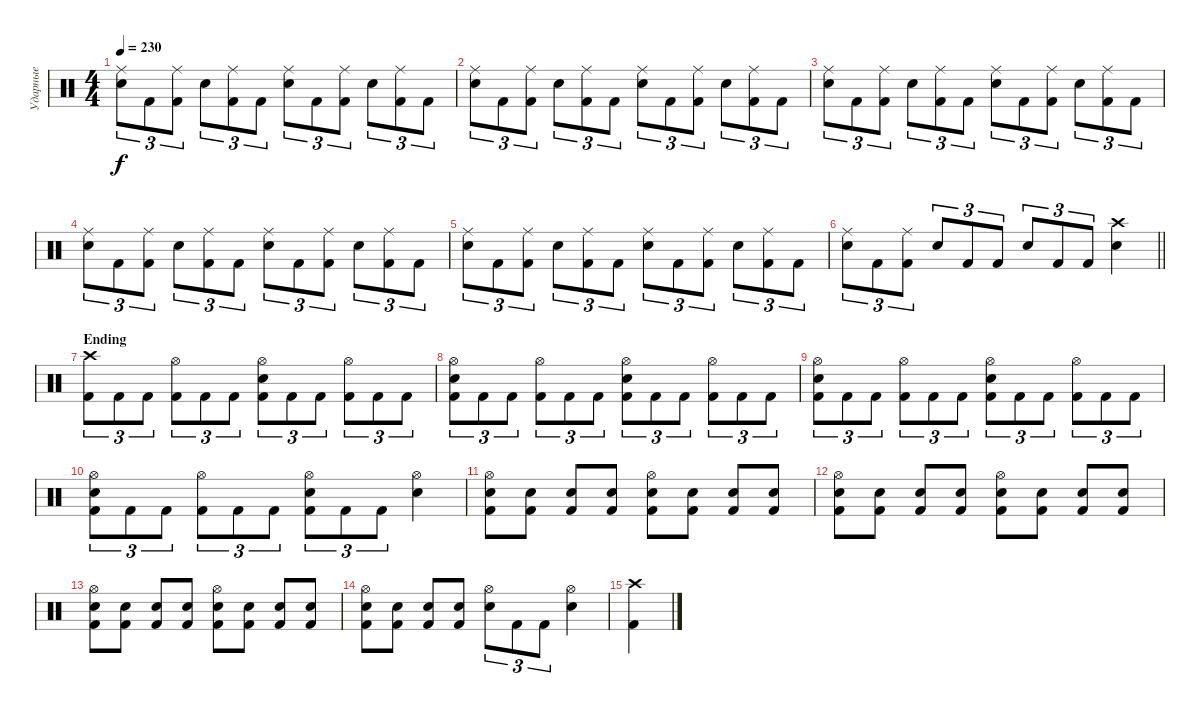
\track ("Ударные" "Ударные") {instrument percussion}
\staff {score}
\articulation defaults
\ts (4 4)
\tempo 230
\clef neutral
\ks c
("Ride (middle)" "Snare (hit) 2").8{tu (3 2) dy f} "Kick (hit) 2".8{tu (3 2)} ("Ride (middle)" "Kick (hit) 2").8{tu (3 2)} "Snare (hit) 2".8{tu (3 2)} ("Ride (middle)" "Kick (hit) 2").8{tu (3 2)} "Kick (hit) 2".8{tu (3 2)} ("Ride (middle)" "Snare (hit) 2").8{tu (3 2)} "Kick (hit) 2".8{tu (3 2)} ("Ride (middle)" "Kick (hit) 2").8{tu (3 2)} "Snare (hit) 2".8{tu (3 2)} ("Ride (middle)" "Kick (hit) 2").8{tu (3 2)} "Kick (hit) 2".8{tu (3 2)} |
("Ride (middle)" "Snare (hit) 2").8{tu (3 2)} "Kick (hit) 2".8{tu (3 2)} ("Ride (middle)" "Kick (hit) 2").8{tu (3 2)} "Snare (hit) 2".8{tu (3 2)} ("Ride (middle)" "Kick (hit) 2").8{tu (3 2)} "Kick (hit) 2".8{tu (3 2)} ("Ride (middle)" "Snare (hit) 2").8{tu (3 2)} "Kick (hit) 2".8{tu (3 2)} ("Ride (middle)" "Kick (hit) 2").8{tu (3 2)} "Snare (hit) 2".8{tu (3 2)} ("Ride (middle)" "Kick (hit) 2").8{tu (3 2)} "Kick (hit) 2".8{tu (3 2)} |
("Ride (middle)" "Snare (hit) 2").8{tu (3 2)} "Kick (hit) 2".8{tu (3 2)} ("Ride (middle)" "Kick (hit) 2").8{tu (3 2)} "Snare (hit) 2".8{tu (3 2)} ("Ride (middle)" "Kick (hit) 2").8{tu (3 2)} "Kick (hit) 2".8{tu (3 2)} ("Ride (middle)" "Snare (hit) 2").8{tu (3 2)} "Kick (hit) 2".8{tu (3 2)} ("Ride (middle)" "Kick (hit) 2").8{tu (3 2)} "Snare (hit) 2".8{tu (3 2)} ("Ride (middle)" "Kick (hit) 2").8{tu (3 2)} "Kick (hit) 2".8{tu (3 2)} |
("Ride (middle)" "Snare (hit) 2").8{tu (3 2)} "Kick (hit) 2".8{tu (3 2)} ("Ride (middle)" "Kick (hit) 2").8{tu (3 2)} "Snare (hit) 2".8{tu (3 2)} ("Ride (middle)" "Kick (hit) 2").8{tu (3 2)} "Kick (hit) 2".8{tu (3 2)} ("Ride (middle)" "Snare (hit) 2").8{tu (3 2)} "Kick (hit) 2".8{tu (3 2)} ("Ride (middle)" "Kick (hit) 2").8{tu (3 2)} "Snare (hit) 2".8{tu (3 2)} ("Ride (middle)" "Kick (hit) 2").8{tu (3 2)} "Kick (hit) 2".8{tu (3 2)} |
("Ride (middle)" "Snare (hit) 2").8{tu (3 2)} "Kick (hit) 2".8{tu (3 2)} ("Ride (middle)" "Kick (hit) 2").8{tu (3 2)} "Snare (hit) 2".8{tu (3 2)} ("Ride (middle)" "Kick (hit) 2").8{tu (3 2)} "Kick (hit) 2".8{tu (3 2)} ("Ride (middle)" "Snare (hit) 2").8{tu (3 2)} "Kick (hit) 2".8{tu (3 2)} ("Ride (middle)" "Kick (hit) 2").8{tu (3 2)} "Snare (hit) 2".8{tu (3 2)} ("Ride (middle)" "Kick (hit) 2").8{tu (3 2)} "Kick (hit) 2".8{tu (3 2)} |
\barLineRight lightlight
("Ride (middle)" "Snare (hit) 2").8{tu (3 2)} "Kick (hit) 2".8{tu (3 2)} ("Ride (middle)" "Kick (hit) 2").8{tu (3 2)} "Snare (hit) 2".8{tu (3 2)} "Kick (hit) 2".8{tu (3 2)} "Kick (hit) 2".8{tu (3 2)} "Snare (hit) 2".8{tu (3 2)} "Kick (hit) 2".8{tu (3 2)} "Kick (hit) 2".8{tu (3 2)} ("Crash high (hit)" "Snare (hit) 2").4 |
\section ("" "Ending")
("Crash high (hit)" "Kick (hit) 2").8{tu (3 2)} "Kick (hit) 2".8{tu (3 2)} "Kick (hit) 2".8{tu (3 2)} ("Hi-Hat (open)" "Kick (hit) 2").8{tu (3 2)} "Kick (hit) 2".8{tu (3 2)} "Kick (hit) 2".8{tu (3 2)} ("Hi-Hat (open)" "Snare (hit) 2" "Kick (hit) 2").8{tu (3 2)} "Kick (hit) 2".8{tu (3 2)} "Kick (hit) 2".8{tu (3 2)} ("Hi-Hat (open)" "Kick (hit) 2").8{tu (3 2)} "Kick (hit) 2".8{tu (3 2)} "Kick (hit) 2".8{tu (3 2)} |
("Hi-Hat (open)" "Snare (hit) 2" "Kick (hit) 2").8{tu (3 2)} "Kick (hit) 2".8{tu (3 2)} "Kick (hit) 2".8{tu (3 2)} ("Hi-Hat (open)" "Kick (hit) 2").8{tu (3 2)} "Kick (hit) 2".8{tu (3 2)} "Kick (hit) 2".8{tu (3 2)} ("Hi-Hat (open)" "Snare (hit) 2" "Kick (hit) 2").8{tu (3 2)} "Kick (hit) 2".8{tu (3 2)} "Kick (hit) 2".8{tu (3 2)} ("Hi-Hat (open)" "Kick (hit) 2").8{tu (3 2)} "Kick (hit) 2".8{tu (3 2)} "Kick (hit) 2".8{tu (3 2)} |
("Hi-Hat (open)" "Snare (hit) 2" "Kick (hit) 2").8{tu (3 2)} "Kick (hit) 2".8{tu (3 2)} "Kick (hit) 2".8{tu (3 2)} ("Hi-Hat (open)" "Kick (hit) 2").8{tu (3 2)} "Kick (hit) 2".8{tu (3 2)} "Kick (hit) 2".8{tu (3 2)} ("Hi-Hat (open)" "Snare (hit) 2" "Kick (hit) 2").8{tu (3 2)} "Kick (hit) 2".8{tu (3 2)} "Kick (hit) 2".8{tu (3 2)} ("Hi-Hat (open)" "Kick (hit) 2").8{tu (3 2)} "Kick (hit) 2".8{tu (3 2)} "Kick (hit) 2".8{tu (3 2)} |
("Hi-Hat (open)" "Snare (hit) 2" "Kick (hit) 2").8{tu (3 2)} "Kick (hit) 2".8{tu (3 2)} "Kick (hit) 2".8{tu (3 2)} ("Hi-Hat (open)" "Kick (hit) 2").8{tu (3 2)} "Kick (hit) 2".8{tu (3 2)} "Kick (hit) 2".8{tu (3 2)} ("Hi-Hat (open)" "Snare (hit) 2" "Kick (hit) 2").8{tu (3 2)} "Kick (hit) 2".8{tu (3 2)} "Kick (hit) 2".8{tu (3 2)} ("Hi-Hat (open)" "Snare (hit) 2").4 |
("Hi-Hat (open)" "Snare (hit) 2" "Kick (hit) 2").8 ("Snare (hit) 2" "Kick (hit) 2").8 ("Snare (hit) 2" "Kick (hit) 2").8 ("Snare (hit) 2" "Kick (hit) 2").8 ("Hi-Hat (open)" "Snare (hit) 2" "Kick (hit) 2").8 ("Snare (hit) 2" "Kick (hit) 2").8 ("Snare (hit) 2" "Kick (hit) 2").8 ("Snare (hit) 2" "Kick (hit) 2").8 |
("Hi-Hat (open)" "Snare (hit) 2" "Kick (hit) 2").8 ("Snare (hit) 2" "Kick (hit) 2").8 ("Snare (hit) 2" "Kick (hit) 2").8 ("Snare (hit) 2" "Kick (hit) 2").8 ("Hi-Hat (open)" "Snare (hit) 2" "Kick (hit) 2").8 ("Snare (hit) 2" "Kick (hit) 2").8 ("Snare (hit) 2" "Kick (hit) 2").8 ("Snare (hit) 2" "Kick (hit) 2").8 |
("Hi-Hat (open)" "Snare (hit) 2" "Kick (hit) 2").8 ("Snare (hit) 2" "Kick (hit) 2").8 ("Snare (hit) 2" "Kick (hit) 2").8 ("Snare (hit) 2" "Kick (hit) 2").8 ("Hi-Hat (open)" "Snare (hit) 2" "Kick (hit) 2").8 ("Snare (hit) 2" "Kick (hit) 2").8 ("Snare (hit) 2" "Kick (hit) 2").8 ("Snare (hit) 2" "Kick (hit) 2").8 |
("Hi-Hat (open)" "Snare (hit) 2" "Kick (hit) 2").8 ("Snare (hit) 2" "Kick (hit) 2").8 ("Snare (hit) 2" "Kick (hit) 2").8 ("Snare (hit) 2" "Kick (hit) 2").8 ("Hi-Hat (open)" "Snare (hit) 2").8{tu (3 2)} "Kick (hit) 2".8{tu (3 2)} "Kick (hit) 2".8{tu (3 2)} ("Hi-Hat (open)" "Snare (hit) 2").4 |
("Crash high (hit)" "Kick (hit) 2").4
